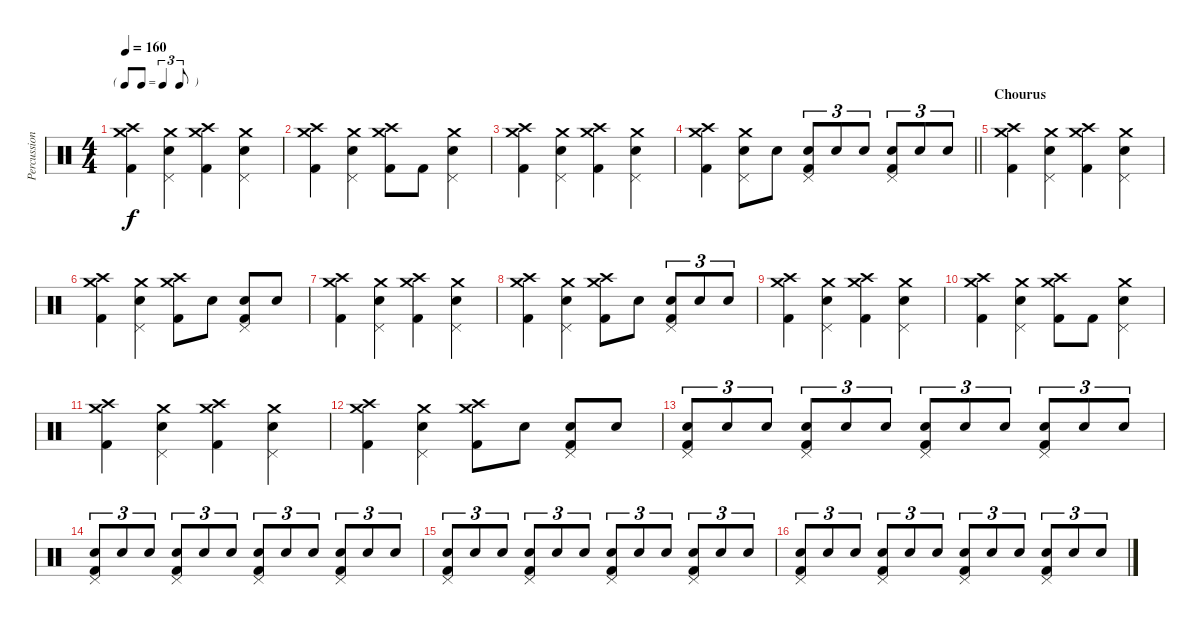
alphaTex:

\track ("Percussion" "Percussion") {instrument percussion}
\staff {score}
\articulation defaults
\ts (4 4)
\tf triplet8th
\tempo 160
\clef neutral
\ks c
("Crash medium (hit)" "Crash high (hit)" "Kick (hit) 2").4{dy f} ("Crash medium (hit)" "Snare (hit) 2" "Pedal Hi-Hat (hit)").4 ("Crash medium (hit)" "Crash high (hit)" "Kick (hit) 2").4 ("Crash medium (hit)" "Snare (hit) 2" "Pedal Hi-Hat (hit)").4 |
("Crash medium (hit)" "Crash high (hit)" "Kick (hit) 2").4 ("Crash medium (hit)" "Snare (hit) 2" "Pedal Hi-Hat (hit)").4 ("Crash medium (hit)" "Crash high (hit)" "Kick (hit) 2").8 "Kick (hit) 2".8 ("Crash medium (hit)" "Snare (hit) 2" "Pedal Hi-Hat (hit)").4 |
("Crash medium (hit)" "Crash high (hit)" "Kick (hit) 2").4 ("Crash medium (hit)" "Snare (hit) 2" "Pedal Hi-Hat (hit)").4 ("Crash medium (hit)" "Crash high (hit)" "Kick (hit) 2").4 ("Crash medium (hit)" "Snare (hit) 2" "Pedal Hi-Hat (hit)").4 |
\barLineRight lightlight
("Crash medium (hit)" "Crash high (hit)" "Kick (hit) 2").4 ("Crash medium (hit)" "Snare (hit) 2" "Pedal Hi-Hat (hit)").8 "Snare (hit) 2".8 ("Snare (hit) 2" "Pedal Hi-Hat (hit)" "Kick (hit) 2").8{tu (3 2)} "Snare (hit) 2".8{tu (3 2)} "Snare (hit) 2".8{tu (3 2)} ("Snare (hit) 2" "Pedal Hi-Hat (hit)" "Kick (hit) 2").8{tu (3 2)} "Snare (hit) 2".8{tu (3 2)} "Snare (hit) 2".8{tu (3 2)} |
\section ("" "Chourus")
("Crash medium (hit)" "Crash high (hit)" "Kick (hit) 2").4 ("Crash medium (hit)" "Snare (hit) 2" "Pedal Hi-Hat (hit)").4 ("Crash medium (hit)" "Crash high (hit)" "Kick (hit) 2").4 ("Crash medium (hit)" "Snare (hit) 2" "Pedal Hi-Hat (hit)").4 |
("Crash medium (hit)" "Crash high (hit)" "Kick (hit) 2").4 ("Crash medium (hit)" "Snare (hit) 2" "Pedal Hi-Hat (hit)").4 ("Crash medium (hit)" "Crash high (hit)" "Kick (hit) 2").8 "Snare (hit) 2".8 ("Snare (hit) 2" "Pedal Hi-Hat (hit)" "Kick (hit) 2").8 "Snare (hit) 2".8 |
("Crash medium (hit)" "Crash high (hit)" "Kick (hit) 2").4 ("Crash medium (hit)" "Snare (hit) 2" "Pedal Hi-Hat (hit)").4 ("Crash medium (hit)" "Crash high (hit)" "Kick (hit) 2").4 ("Crash medium (hit)" "Snare (hit) 2" "Pedal Hi-Hat (hit)").4 |
("Crash medium (hit)" "Crash high (hit)" "Kick (hit) 2").4 ("Crash medium (hit)" "Snare (hit) 2" "Pedal Hi-Hat (hit)").4 ("Crash medium (hit)" "Crash high (hit)" "Kick (hit) 2").8 "Snare (hit) 2".8 ("Snare (hit) 2" "Pedal Hi-Hat (hit)" "Kick (hit) 2").8{tu (3 2)} "Snare (hit) 2".8{tu (3 2)} "Snare (hit) 2".8{tu (3 2)} |
("Crash medium (hit)" "Crash high (hit)" "Kick (hit) 2").4 ("Crash medium (hit)" "Snare (hit) 2" "Pedal Hi-Hat (hit)").4 ("Crash medium (hit)" "Crash high (hit)" "Kick (hit) 2").4 ("Crash medium (hit)" "Snare (hit) 2" "Pedal Hi-Hat (hit)").4 |
("Crash medium (hit)" "Crash high (hit)" "Kick (hit) 2").4 ("Crash medium (hit)" "Snare (hit) 2" "Pedal Hi-Hat (hit)").4 ("Crash medium (hit)" "Crash high (hit)" "Kick (hit) 2").8 "Kick (hit) 2".8 ("Crash medium (hit)" "Snare (hit) 2" "Pedal Hi-Hat (hit)").4 |
("Crash medium (hit)" "Crash high (hit)" "Kick (hit) 2").4 ("Crash medium (hit)" "Snare (hit) 2" "Pedal Hi-Hat (hit)").4 ("Crash medium (hit)" "Crash high (hit)" "Kick (hit) 2").4 ("Crash medium (hit)" "Snare (hit) 2" "Pedal Hi-Hat (hit)").4 |
("Crash medium (hit)" "Crash high (hit)" "Kick (hit) 2").4 ("Crash medium (hit)" "Snare (hit) 2" "Pedal Hi-Hat (hit)").4 ("Crash medium (hit)" "Crash high (hit)" "Kick (hit) 2").8 "Snare (hit) 2".8 ("Snare (hit) 2" "Pedal Hi-Hat (hit)" "Kick (hit) 2").8 "Snare (hit) 2".8 |
("Snare (hit) 2" "Pedal Hi-Hat (hit)" "Kick (hit) 2").8{tu (3 2)} "Snare (hit) 2".8{tu (3 2)} "Snare (hit) 2".8{tu (3 2)} ("Snare (hit) 2" "Pedal Hi-Hat (hit)" "Kick (hit) 2").8{tu (3 2)} "Snare (hit) 2".8{tu (3 2)} "Snare (hit) 2".8{tu (3 2)} ("Snare (hit) 2" "Pedal Hi-Hat (hit)" "Kick (hit) 2").8{tu (3 2)} "Snare (hit) 2".8{tu (3 2)} "Snare (hit) 2".8{tu (3 2)} ("Snare (hit) 2" "Pedal Hi-Hat (hit)" "Kick (hit) 2").8{tu (3 2)} "Snare (hit) 2".8{tu (3 2)} "Snare (hit) 2".8{tu (3 2)} |
("Snare (hit) 2" "Pedal Hi-Hat (hit)" "Kick (hit) 2").8{tu (3 2)} "Snare (hit) 2".8{tu (3 2)} "Snare (hit) 2".8{tu (3 2)} ("Snare (hit) 2" "Pedal Hi-Hat (hit)" "Kick (hit) 2").8{tu (3 2)} "Snare (hit) 2".8{tu (3 2)} "Snare (hit) 2".8{tu (3 2)} ("Snare (hit) 2" "Pedal Hi-Hat (hit)" "Kick (hit) 2").8{tu (3 2)} "Snare (hit) 2".8{tu (3 2)} "Snare (hit) 2".8{tu (3 2)} ("Snare (hit) 2" "Pedal Hi-Hat (hit)" "Kick (hit) 2").8{tu (3 2)} "Snare (hit) 2".8{tu (3 2)} "Snare (hit) 2".8{tu (3 2)} |
("Snare (hit) 2" "Pedal Hi-Hat (hit)" "Kick (hit) 2").8{tu (3 2)} "Snare (hit) 2".8{tu (3 2)} "Snare (hit) 2".8{tu (3 2)} ("Snare (hit) 2" "Pedal Hi-Hat (hit)" "Kick (hit) 2").8{tu (3 2)} "Snare (hit) 2".8{tu (3 2)} "Snare (hit) 2".8{tu (3 2)} ("Snare (hit) 2" "Pedal Hi-Hat (hit)" "Kick (hit) 2").8{tu (3 2)} "Snare (hit) 2".8{tu (3 2)} "Snare (hit) 2".8{tu (3 2)} ("Snare (hit) 2" "Pedal Hi-Hat (hit)" "Kick (hit) 2").8{tu (3 2)} "Snare (hit) 2".8{tu (3 2)} "Snare (hit) 2".8{tu (3 2)} |
("Snare (hit) 2" "Pedal Hi-Hat (hit)" "Kick (hit) 2").8{tu (3 2)} "Snare (hit) 2".8{tu (3 2)} "Snare (hit) 2".8{tu (3 2)} ("Snare (hit) 2" "Pedal Hi-Hat (hit)" "Kick (hit) 2").8{tu (3 2)} "Snare (hit) 2".8{tu (3 2)} "Snare (hit) 2".8{tu (3 2)} ("Snare (hit) 2" "Pedal Hi-Hat (hit)" "Kick (hit) 2").8{tu (3 2)} "Snare (hit) 2".8{tu (3 2)} "Snare (hit) 2".8{tu (3 2)} ("Snare (hit) 2" "Pedal Hi-Hat (hit)" "Kick (hit) 2").8{tu (3 2)} "Snare (hit) 2".8{tu (3 2)} "Snare (hit) 2".8{tu (3 2)}
